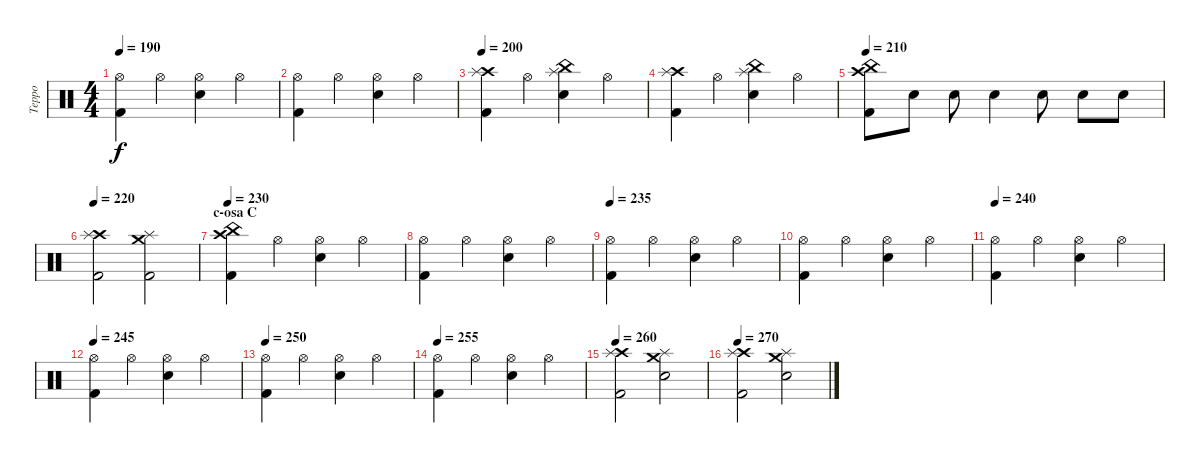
\track ("Teppo" "Teppo") {instrument percussion}
\staff {score}
\articulation defaults
\ts (4 4)
\tempo 190
\clef neutral
\ks c
("Hi-Hat (open)" "Kick (hit) 2").4{dy f} "Hi-Hat (open)".4 ("Hi-Hat (open)" "Electric Snare (hit)").4 "Hi-Hat (open)".4 |
("Hi-Hat (open)" "Kick (hit) 2").4 "Hi-Hat (open)".4 ("Hi-Hat (open)" "Electric Snare (hit)").4 "Hi-Hat (open)".4 |
\tempo 200
("Crash high (hit)" "Splash (hit)" "Kick (hit) 2").4 "Hi-Hat (open)".4 ("China (hit)" "Splash (hit)" "Electric Snare (hit)").4 "Hi-Hat (open)".4 |
("Crash high (hit)" "Splash (hit)" "Kick (hit) 2").4 "Hi-Hat (open)".4 ("China (hit)" "Splash (hit)" "Electric Snare (hit)").4 "Hi-Hat (open)".4 |
\tempo 210
("Crash high (hit)" "China (hit)" "Kick (hit) 2").8 "Electric Snare (hit)".8 "Electric Snare (hit)".8 "Electric Snare (hit)".4 "Electric Snare (hit)".8 "Electric Snare (hit)".8 "Electric Snare (hit)".8 |
\tempo 220
("Crash high (hit)" "Splash (hit)" "Kick (hit) 2").2 ("Crash medium (hit)" "Splash (hit)" "Kick (hit) 2").2 |
\section ("" "c-osa C")
\tempo 230
("Crash high (hit)" "China (hit)" "Kick (hit) 2").4 "Hi-Hat (open)".4 ("Hi-Hat (open)" "Electric Snare (hit)").4 "Hi-Hat (open)".4 |
("Hi-Hat (open)" "Kick (hit) 2").4 "Hi-Hat (open)".4 ("Hi-Hat (open)" "Electric Snare (hit)").4 "Hi-Hat (open)".4 |
\tempo 235
("Hi-Hat (open)" "Kick (hit) 2").4 "Hi-Hat (open)".4 ("Hi-Hat (open)" "Electric Snare (hit)").4 "Hi-Hat (open)".4 |
("Hi-Hat (open)" "Kick (hit) 2").4 "Hi-Hat (open)".4 ("Hi-Hat (open)" "Electric Snare (hit)").4 "Hi-Hat (open)".4 |
\tempo 240
("Hi-Hat (open)" "Kick (hit) 2").4 "Hi-Hat (open)".4 ("Hi-Hat (open)" "Electric Snare (hit)").4 "Hi-Hat (open)".4 |
\tempo 245
("Hi-Hat (open)" "Kick (hit) 2").4 "Hi-Hat (open)".4 ("Hi-Hat (open)" "Electric Snare (hit)").4 "Hi-Hat (open)".4 |
\tempo 250
("Hi-Hat (open)" "Kick (hit) 2").4 "Hi-Hat (open)".4 ("Hi-Hat (open)" "Electric Snare (hit)").4 "Hi-Hat (open)".4 |
\tempo 255
("Hi-Hat (open)" "Kick (hit) 2").4 "Hi-Hat (open)".4 ("Hi-Hat (open)" "Electric Snare (hit)").4 "Hi-Hat (open)".4 |
\tempo 260
("Crash high (hit)" "Splash (hit)" "Kick (hit) 2").2 ("Crash medium (hit)" "Splash (hit)" "Electric Snare (hit)").2 |
\tempo 270
("Crash high (hit)" "Splash (hit)" "Kick (hit) 2").2 ("Crash medium (hit)" "Splash (hit)" "Electric Snare (hit)").2
